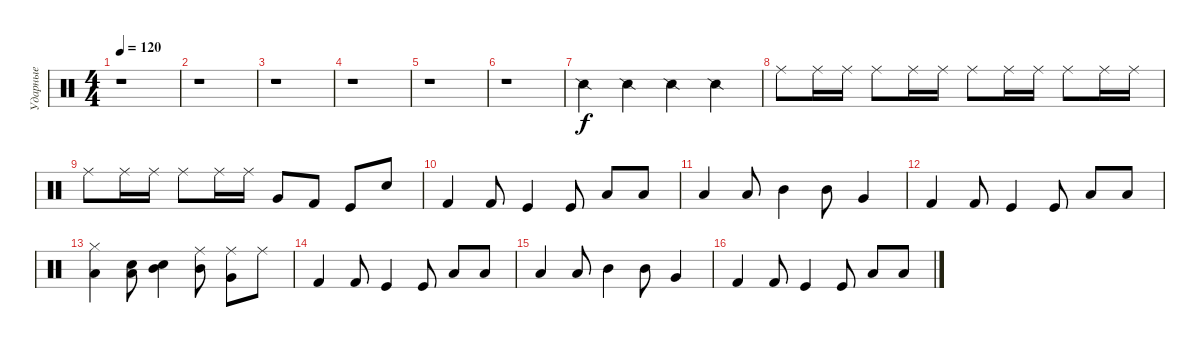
\track ("Ударные" "Ударные") {instrument percussion}
\staff {score}
\articulation defaults
\ts (4 4)
\tempo 120
\clef neutral
\ks c
r.1{dy f} |
r.1 |
r.1 |
r.1 |
r.1 |
r.1 |
"Snare (side stick) 2".4 "Snare (side stick) 2".4 "Snare (side stick) 2".4 "Snare (side stick) 2".4 |
"Ride (middle)".8 "Ride (middle)".16 "Ride (middle)".16 "Ride (middle)".8 "Ride (middle)".16 "Ride (middle)".16 "Ride (middle)".8 "Ride (middle)".16 "Ride (middle)".16 "Ride (middle)".8 "Ride (middle)".16 "Ride (middle)".16 |
"Ride (middle)".8 "Ride (middle)".16 "Ride (middle)".16 "Ride (middle)".8 "Ride (middle)".16 "Ride (middle)".16 "Very Low Tom (hit)".8 "Kick (hit) 2".8 "Kick (hit)".8 "Snare (hit) 2".8 |
"Kick (hit) 2".4 "Kick (hit) 2".8 "Kick (hit)".4 "Kick (hit)".8 "Low Tom (hit)".8 "Low Tom (hit)".8 |
"Low Tom (hit)".4 "Low Tom (hit)".8 "Mid Tom (hit)".4 "Mid Tom (hit)".8 "Very Low Tom (hit)".4 |
"Kick (hit) 2".4 "Kick (hit) 2".8 "Kick (hit)".4 "Kick (hit)".8 "Low Tom (hit)".8 "Low Tom (hit)".8 |
("Low Tom (hit)" "Hi-Hat (closed)").4 ("Low Tom (hit)" "Metronome (bell)").8 ("Mid Tom (hit)" "Metronome (bell)").4 ("Ride (middle)" "Mid Tom (hit)").8 ("Ride (middle)" "Very Low Tom (hit)").8 "Ride (middle)".8 |
"Kick (hit) 2".4 "Kick (hit) 2".8 "Kick (hit)".4 "Kick (hit)".8 "Low Tom (hit)".8 "Low Tom (hit)".8 |
"Low Tom (hit)".4 "Low Tom (hit)".8 "Mid Tom (hit)".4 "Mid Tom (hit)".8 "Very Low Tom (hit)".4 |
"Kick (hit) 2".4 "Kick (hit) 2".8 "Kick (hit)".4 "Kick (hit)".8 "Low Tom (hit)".8 "Low Tom (hit)".8
